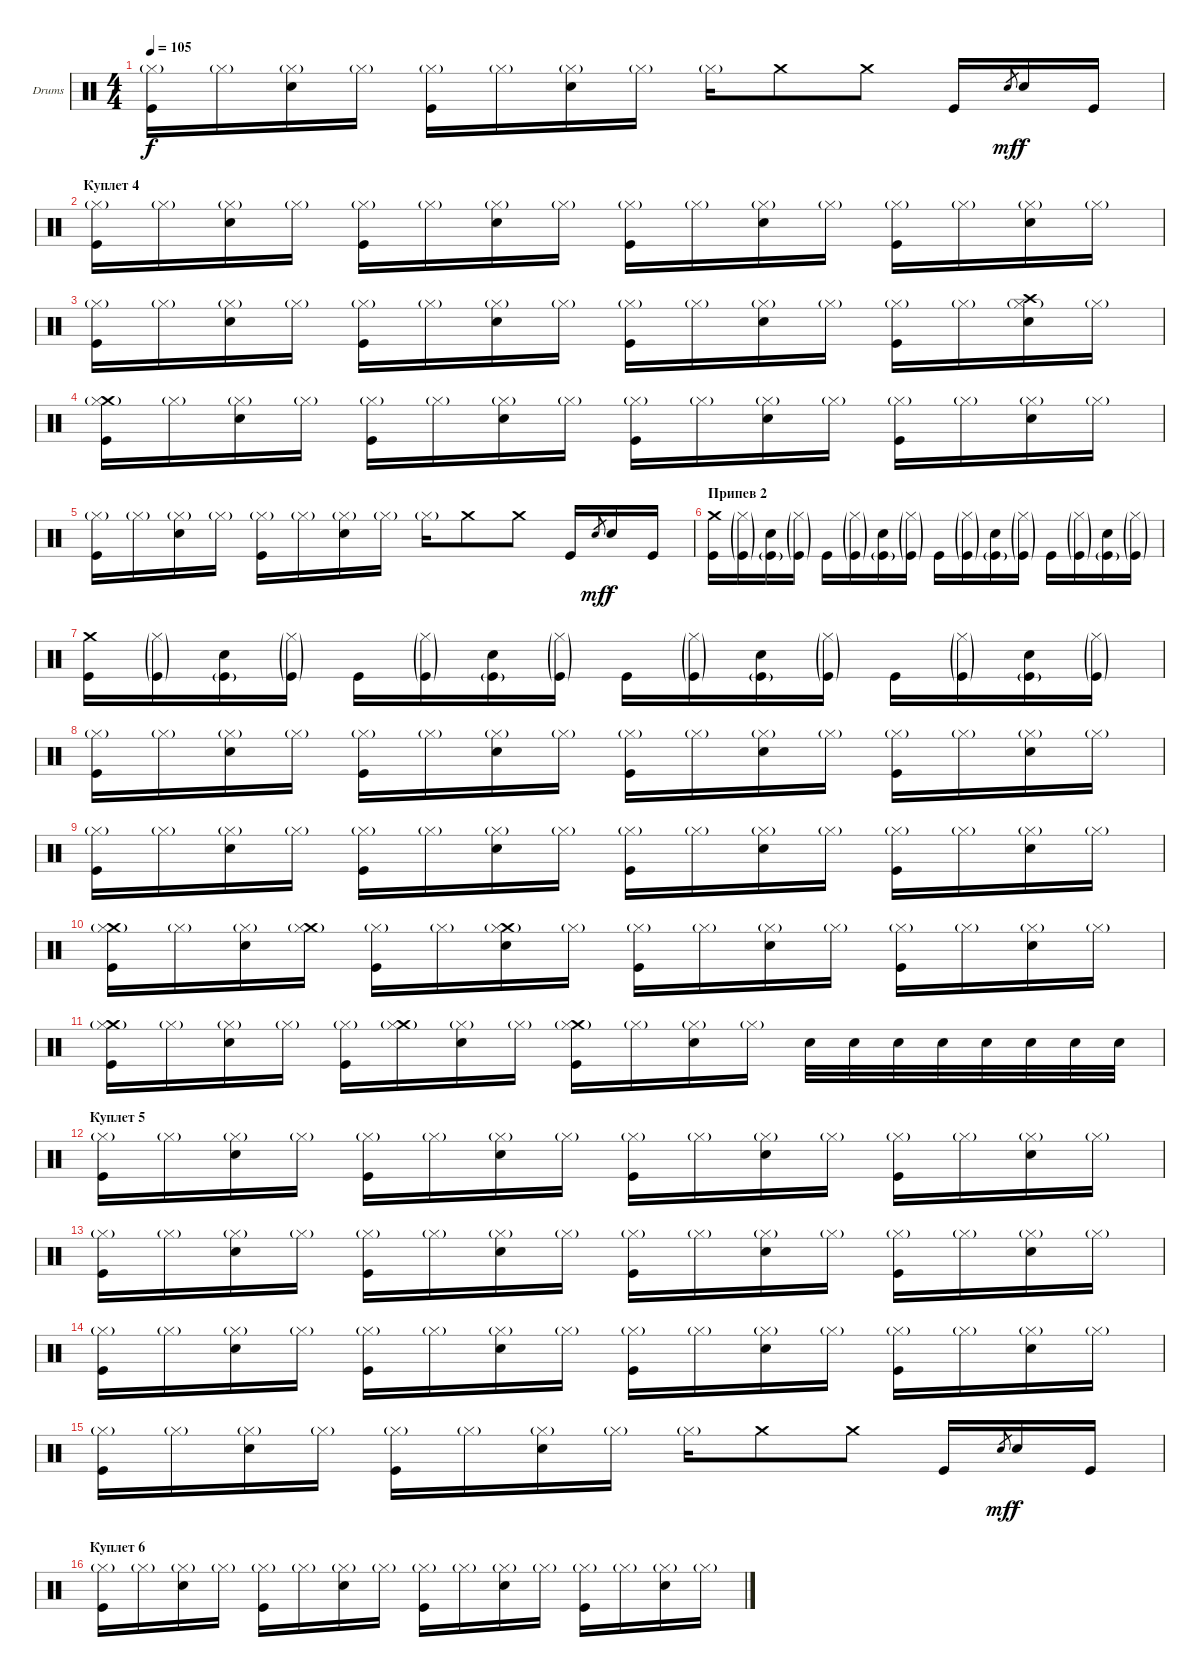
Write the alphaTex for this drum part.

\bracketExtendMode groupsimilarinstruments
\firstSystemTrackNameOrientation horizontal
\otherSystemsTrackNameOrientation horizontal
\track ("Drumkit" "Drums") {instrument percussion}
\staff {score}
\articulation defaults
\ts (4 4)
\tempo 105
\clef neutral
\ks c
("Kick (hit)" "Hi-Hat (closed)"{g}).16{dy f} "Hi-Hat (closed)"{g}.16 ("Snare (hit) 2" "Hi-Hat (closed)"{g}).16 "Hi-Hat (closed)"{g}.16 ("Kick (hit)" "Hi-Hat (closed)"{g}).16 "Hi-Hat (closed)"{g}.16 ("Snare (hit) 2" "Hi-Hat (closed)"{g}).16 "Hi-Hat (closed)"{g}.16 "Hi-Hat (closed)"{g}.16 "Crash medium (hit)".8 "Crash medium (hit)".8 "Kick (hit)".16 "Snare (hit) 2".8{gr dy mf} "Snare (hit) 2".16{dy f} "Kick (hit)".16 |
\section ("" "Куплет 4")
("Kick (hit)" "Hi-Hat (closed)"{g}).16 "Hi-Hat (closed)"{g}.16 ("Snare (hit) 2" "Hi-Hat (closed)"{g}).16 "Hi-Hat (closed)"{g}.16 ("Kick (hit)" "Hi-Hat (closed)"{g}).16 "Hi-Hat (closed)"{g}.16 ("Snare (hit) 2" "Hi-Hat (closed)"{g}).16 "Hi-Hat (closed)"{g}.16 ("Kick (hit)" "Hi-Hat (closed)"{g}).16 "Hi-Hat (closed)"{g}.16 ("Snare (hit) 2" "Hi-Hat (closed)"{g}).16 "Hi-Hat (closed)"{g}.16 ("Kick (hit)" "Hi-Hat (closed)"{g}).16 "Hi-Hat (closed)"{g}.16 ("Snare (hit) 2" "Hi-Hat (closed)"{g}).16 "Hi-Hat (closed)"{g}.16 |
("Kick (hit)" "Hi-Hat (closed)"{g}).16 "Hi-Hat (closed)"{g}.16 ("Snare (hit) 2" "Hi-Hat (closed)"{g}).16 "Hi-Hat (closed)"{g}.16 ("Kick (hit)" "Hi-Hat (closed)"{g}).16 "Hi-Hat (closed)"{g}.16 ("Snare (hit) 2" "Hi-Hat (closed)"{g}).16 "Hi-Hat (closed)"{g}.16 ("Kick (hit)" "Hi-Hat (closed)"{g}).16 "Hi-Hat (closed)"{g}.16 ("Snare (hit) 2" "Hi-Hat (closed)"{g}).16 "Hi-Hat (closed)"{g}.16 ("Kick (hit)" "Hi-Hat (closed)"{g}).16 "Hi-Hat (closed)"{g}.16 ("Snare (hit) 2" "Crash high (hit)" "Hi-Hat (closed)"{g}).16 "Hi-Hat (closed)"{g}.16 |
("Kick (hit)" "Crash medium (hit)" "Hi-Hat (closed)"{g}).16 "Hi-Hat (closed)"{g}.16 ("Snare (hit) 2" "Hi-Hat (closed)"{g}).16 "Hi-Hat (closed)"{g}.16 ("Kick (hit)" "Hi-Hat (closed)"{g}).16 "Hi-Hat (closed)"{g}.16 ("Snare (hit) 2" "Hi-Hat (closed)"{g}).16 "Hi-Hat (closed)"{g}.16 ("Kick (hit)" "Hi-Hat (closed)"{g}).16 "Hi-Hat (closed)"{g}.16 ("Snare (hit) 2" "Hi-Hat (closed)"{g}).16 "Hi-Hat (closed)"{g}.16 ("Kick (hit)" "Hi-Hat (closed)"{g}).16 "Hi-Hat (closed)"{g}.16 ("Snare (hit) 2" "Hi-Hat (closed)"{g}).16 "Hi-Hat (closed)"{g}.16 |
("Kick (hit)" "Hi-Hat (closed)"{g}).16 "Hi-Hat (closed)"{g}.16 ("Snare (hit) 2" "Hi-Hat (closed)"{g}).16 "Hi-Hat (closed)"{g}.16 ("Kick (hit)" "Hi-Hat (closed)"{g}).16 "Hi-Hat (closed)"{g}.16 ("Snare (hit) 2" "Hi-Hat (closed)"{g}).16 "Hi-Hat (closed)"{g}.16 "Hi-Hat (closed)"{g}.16 "Crash medium (hit)".8 "Crash medium (hit)".8 "Kick (hit)".16 "Snare (hit) 2".8{gr dy mf} "Snare (hit) 2".16{dy f} "Kick (hit)".16 |
\section ("" "Припев 2")
("Crash medium (hit)" "Kick (hit)").16 ("Hi-Hat (closed)"{g} "Kick (hit)"{g}).16 ("Snare (hit) 2" "Kick (hit)"{g}).16 ("Hi-Hat (closed)"{g} "Kick (hit)"{g}).16 "Kick (hit)".16 ("Hi-Hat (closed)"{g} "Kick (hit)"{g}).16 ("Snare (hit) 2" "Kick (hit)"{g}).16 ("Hi-Hat (closed)"{g} "Kick (hit)"{g}).16 "Kick (hit)".16 ("Hi-Hat (closed)"{g} "Kick (hit)"{g}).16 ("Snare (hit) 2" "Kick (hit)"{g}).16 ("Hi-Hat (closed)"{g} "Kick (hit)"{g}).16 "Kick (hit)".16 ("Hi-Hat (closed)"{g} "Kick (hit)"{g}).16 ("Snare (hit) 2" "Kick (hit)"{g}).16 ("Hi-Hat (closed)"{g} "Kick (hit)"{g}).16 |
("Crash medium (hit)" "Kick (hit)").16 ("Hi-Hat (closed)"{g} "Kick (hit)"{g}).16 ("Snare (hit) 2" "Kick (hit)"{g}).16 ("Hi-Hat (closed)"{g} "Kick (hit)"{g}).16 "Kick (hit)".16 ("Hi-Hat (closed)"{g} "Kick (hit)"{g}).16 ("Snare (hit) 2" "Kick (hit)"{g}).16 ("Hi-Hat (closed)"{g} "Kick (hit)"{g}).16 "Kick (hit)".16 ("Hi-Hat (closed)"{g} "Kick (hit)"{g}).16 ("Snare (hit) 2" "Kick (hit)"{g}).16 ("Hi-Hat (closed)"{g} "Kick (hit)"{g}).16 "Kick (hit)".16 ("Hi-Hat (closed)"{g} "Kick (hit)"{g}).16 ("Snare (hit) 2" "Kick (hit)"{g}).16 ("Hi-Hat (closed)"{g} "Kick (hit)"{g}).16 |
("Kick (hit)" "Hi-Hat (closed)"{g}).16 "Hi-Hat (closed)"{g}.16 ("Snare (hit) 2" "Hi-Hat (closed)"{g}).16 "Hi-Hat (closed)"{g}.16 ("Kick (hit)" "Hi-Hat (closed)"{g}).16 "Hi-Hat (closed)"{g}.16 ("Snare (hit) 2" "Hi-Hat (closed)"{g}).16 "Hi-Hat (closed)"{g}.16 ("Kick (hit)" "Hi-Hat (closed)"{g}).16 "Hi-Hat (closed)"{g}.16 ("Snare (hit) 2" "Hi-Hat (closed)"{g}).16 "Hi-Hat (closed)"{g}.16 ("Kick (hit)" "Hi-Hat (closed)"{g}).16 "Hi-Hat (closed)"{g}.16 ("Snare (hit) 2" "Hi-Hat (closed)"{g}).16 "Hi-Hat (closed)"{g}.16 |
("Kick (hit)" "Hi-Hat (closed)"{g}).16 "Hi-Hat (closed)"{g}.16 ("Snare (hit) 2" "Hi-Hat (closed)"{g}).16 "Hi-Hat (closed)"{g}.16 ("Kick (hit)" "Hi-Hat (closed)"{g}).16 "Hi-Hat (closed)"{g}.16 ("Snare (hit) 2" "Hi-Hat (closed)"{g}).16 "Hi-Hat (closed)"{g}.16 ("Kick (hit)" "Hi-Hat (closed)"{g}).16 "Hi-Hat (closed)"{g}.16 ("Snare (hit) 2" "Hi-Hat (closed)"{g}).16 "Hi-Hat (closed)"{g}.16 ("Kick (hit)" "Hi-Hat (closed)"{g}).16 "Hi-Hat (closed)"{g}.16 ("Snare (hit) 2" "Hi-Hat (closed)"{g}).16 "Hi-Hat (closed)"{g}.16 |
("Kick (hit)" "Crash medium (hit)" "Hi-Hat (closed)"{g}).16 "Hi-Hat (closed)"{g}.16 ("Snare (hit) 2" "Hi-Hat (closed)"{g}).16 ("Crash medium (hit)" "Hi-Hat (closed)"{g}).16 ("Kick (hit)" "Hi-Hat (closed)"{g}).16 "Hi-Hat (closed)"{g}.16 ("Snare (hit) 2" "Crash medium (hit)" "Hi-Hat (closed)"{g}).16 "Hi-Hat (closed)"{g}.16 ("Kick (hit)" "Hi-Hat (closed)"{g}).16 "Hi-Hat (closed)"{g}.16 ("Snare (hit) 2" "Hi-Hat (closed)"{g}).16 "Hi-Hat (closed)"{g}.16 ("Kick (hit)" "Hi-Hat (closed)"{g}).16 "Hi-Hat (closed)"{g}.16 ("Snare (hit) 2" "Hi-Hat (closed)"{g}).16 "Hi-Hat (closed)"{g}.16 |
("Kick (hit)" "Crash medium (hit)" "Hi-Hat (closed)"{g}).16 "Hi-Hat (closed)"{g}.16 ("Snare (hit) 2" "Hi-Hat (closed)"{g}).16 "Hi-Hat (closed)"{g}.16 ("Kick (hit)" "Hi-Hat (closed)"{g}).16 ("Crash medium (hit)" "Hi-Hat (closed)"{g}).16 ("Snare (hit) 2" "Hi-Hat (closed)"{g}).16 "Hi-Hat (closed)"{g}.16 ("Kick (hit)" "Crash medium (hit)" "Hi-Hat (closed)"{g}).16 "Hi-Hat (closed)"{g}.16 ("Snare (hit) 2" "Hi-Hat (closed)"{g}).16 "Hi-Hat (closed)"{g}.16 "Snare (hit) 2".32 "Snare (hit) 2".32 "Snare (hit) 2".32 "Snare (hit) 2".32 "Snare (hit) 2".32 "Snare (hit) 2".32 "Snare (hit) 2".32 "Snare (hit) 2".32 |
\section ("" "Куплет 5")
("Kick (hit)" "Hi-Hat (closed)"{g}).16 "Hi-Hat (closed)"{g}.16 ("Snare (hit) 2" "Hi-Hat (closed)"{g}).16 "Hi-Hat (closed)"{g}.16 ("Kick (hit)" "Hi-Hat (closed)"{g}).16 "Hi-Hat (closed)"{g}.16 ("Snare (hit) 2" "Hi-Hat (closed)"{g}).16 "Hi-Hat (closed)"{g}.16 ("Kick (hit)" "Hi-Hat (closed)"{g}).16 "Hi-Hat (closed)"{g}.16 ("Snare (hit) 2" "Hi-Hat (closed)"{g}).16 "Hi-Hat (closed)"{g}.16 ("Kick (hit)" "Hi-Hat (closed)"{g}).16 "Hi-Hat (closed)"{g}.16 ("Snare (hit) 2" "Hi-Hat (closed)"{g}).16 "Hi-Hat (closed)"{g}.16 |
("Kick (hit)" "Hi-Hat (closed)"{g}).16 "Hi-Hat (closed)"{g}.16 ("Snare (hit) 2" "Hi-Hat (closed)"{g}).16 "Hi-Hat (closed)"{g}.16 ("Kick (hit)" "Hi-Hat (closed)"{g}).16 "Hi-Hat (closed)"{g}.16 ("Snare (hit) 2" "Hi-Hat (closed)"{g}).16 "Hi-Hat (closed)"{g}.16 ("Kick (hit)" "Hi-Hat (closed)"{g}).16 "Hi-Hat (closed)"{g}.16 ("Snare (hit) 2" "Hi-Hat (closed)"{g}).16 "Hi-Hat (closed)"{g}.16 ("Kick (hit)" "Hi-Hat (closed)"{g}).16 "Hi-Hat (closed)"{g}.16 ("Snare (hit) 2" "Hi-Hat (closed)"{g}).16 "Hi-Hat (closed)"{g}.16 |
("Kick (hit)" "Hi-Hat (closed)"{g}).16 "Hi-Hat (closed)"{g}.16 ("Snare (hit) 2" "Hi-Hat (closed)"{g}).16 "Hi-Hat (closed)"{g}.16 ("Kick (hit)" "Hi-Hat (closed)"{g}).16 "Hi-Hat (closed)"{g}.16 ("Snare (hit) 2" "Hi-Hat (closed)"{g}).16 "Hi-Hat (closed)"{g}.16 ("Kick (hit)" "Hi-Hat (closed)"{g}).16 "Hi-Hat (closed)"{g}.16 ("Snare (hit) 2" "Hi-Hat (closed)"{g}).16 "Hi-Hat (closed)"{g}.16 ("Kick (hit)" "Hi-Hat (closed)"{g}).16 "Hi-Hat (closed)"{g}.16 ("Snare (hit) 2" "Hi-Hat (closed)"{g}).16 "Hi-Hat (closed)"{g}.16 |
("Kick (hit)" "Hi-Hat (closed)"{g}).16 "Hi-Hat (closed)"{g}.16 ("Snare (hit) 2" "Hi-Hat (closed)"{g}).16 "Hi-Hat (closed)"{g}.16 ("Kick (hit)" "Hi-Hat (closed)"{g}).16 "Hi-Hat (closed)"{g}.16 ("Snare (hit) 2" "Hi-Hat (closed)"{g}).16 "Hi-Hat (closed)"{g}.16 "Hi-Hat (closed)"{g}.16 "Crash medium (hit)".8 "Crash medium (hit)".8 "Kick (hit)".16 "Snare (hit) 2".8{gr dy mf} "Snare (hit) 2".16{dy f} "Kick (hit)".16 |
\section ("" "Куплет 6")
("Kick (hit)" "Hi-Hat (closed)"{g}).16 "Hi-Hat (closed)"{g}.16 ("Snare (hit) 2" "Hi-Hat (closed)"{g}).16 "Hi-Hat (closed)"{g}.16 ("Kick (hit)" "Hi-Hat (closed)"{g}).16 "Hi-Hat (closed)"{g}.16 ("Snare (hit) 2" "Hi-Hat (closed)"{g}).16 "Hi-Hat (closed)"{g}.16 ("Kick (hit)" "Hi-Hat (closed)"{g}).16 "Hi-Hat (closed)"{g}.16 ("Snare (hit) 2" "Hi-Hat (closed)"{g}).16 "Hi-Hat (closed)"{g}.16 ("Kick (hit)" "Hi-Hat (closed)"{g}).16 "Hi-Hat (closed)"{g}.16 ("Snare (hit) 2" "Hi-Hat (closed)"{g}).16 "Hi-Hat (closed)"{g}.16
